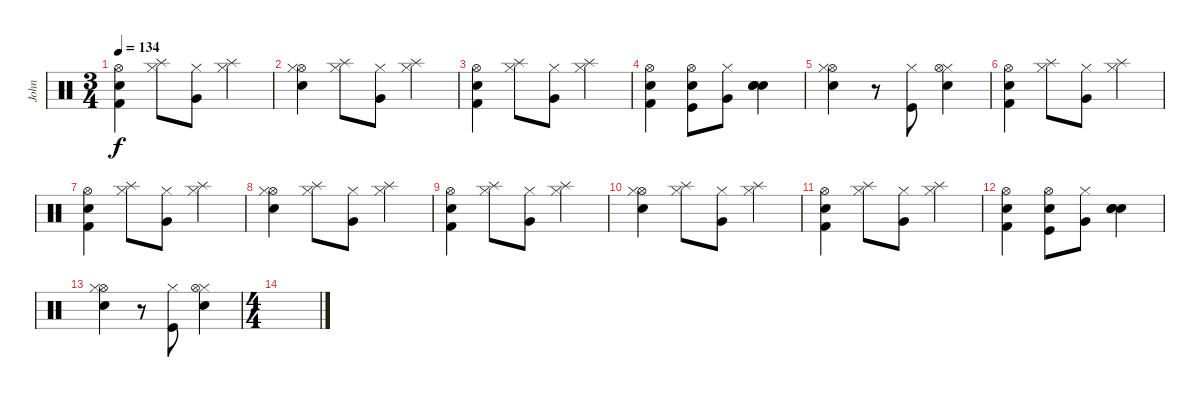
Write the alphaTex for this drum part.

\track ("John" "John") {instrument percussion}
\staff {score}
\articulation defaults
\ts (3 4)
\tempo 134
\clef neutral
\ks c
("Hi-Hat (open)" "Electric Snare (hit)" "Kick (hit) 2").4{dy f} ("Hi-Hat (closed)" "Splash (hit)").8 ("Hi-Hat (closed)" "Very Low Tom (hit)").8 ("Hi-Hat (closed)" "Splash (hit)").4 |
("Hi-Hat (open)" "Hi-Hat (closed)" "Electric Snare (hit)").4 ("Hi-Hat (closed)" "Splash (hit)").8 ("Hi-Hat (closed)" "Very Low Tom (hit)").8 ("Hi-Hat (closed)" "Splash (hit)").4 |
("Hi-Hat (open)" "Electric Snare (hit)" "Kick (hit) 2").4 ("Hi-Hat (closed)" "Splash (hit)").8 ("Hi-Hat (closed)" "Very Low Tom (hit)").8 ("Hi-Hat (closed)" "Splash (hit)").4 |
("Hi-Hat (open)" "Electric Snare (hit)" "Kick (hit) 2").4 ("Hi-Hat (open)" "Electric Snare (hit)" "Kick (hit)").8 ("Hi-Hat (closed)" "Very Low Tom (hit)").8 ("Electric Snare (hit)" "Electric Snare (hit)" "Snare (hit) 2").4 |
("Hi-Hat (open)" "Hi-Hat (closed)" "Electric Snare (hit)").4 r.8 ("Hi-Hat (closed)" "Kick (hit)").8 ("Hi-Hat (closed)" "Electric Snare (hit)" "Hi-Hat (open)").4 |
("Hi-Hat (open)" "Electric Snare (hit)" "Kick (hit) 2").4 ("Hi-Hat (closed)" "Splash (hit)").8 ("Hi-Hat (closed)" "Very Low Tom (hit)").8 ("Hi-Hat (closed)" "Splash (hit)").4 |
("Hi-Hat (open)" "Electric Snare (hit)" "Kick (hit) 2").4 ("Hi-Hat (closed)" "Splash (hit)").8 ("Hi-Hat (closed)" "Very Low Tom (hit)").8 ("Hi-Hat (closed)" "Splash (hit)").4 |
("Hi-Hat (open)" "Hi-Hat (closed)" "Electric Snare (hit)").4 ("Hi-Hat (closed)" "Splash (hit)").8 ("Hi-Hat (closed)" "Very Low Tom (hit)").8 ("Hi-Hat (closed)" "Splash (hit)").4 |
("Hi-Hat (open)" "Electric Snare (hit)" "Kick (hit) 2").4 ("Hi-Hat (closed)" "Splash (hit)").8 ("Hi-Hat (closed)" "Very Low Tom (hit)").8 ("Hi-Hat (closed)" "Splash (hit)").4 |
("Hi-Hat (open)" "Hi-Hat (closed)" "Electric Snare (hit)").4 ("Hi-Hat (closed)" "Splash (hit)").8 ("Hi-Hat (closed)" "Very Low Tom (hit)").8 ("Hi-Hat (closed)" "Splash (hit)").4 |
("Hi-Hat (open)" "Electric Snare (hit)" "Kick (hit) 2").4 ("Hi-Hat (closed)" "Splash (hit)").8 ("Hi-Hat (closed)" "Very Low Tom (hit)").8 ("Hi-Hat (closed)" "Splash (hit)").4 |
("Hi-Hat (open)" "Electric Snare (hit)" "Kick (hit) 2").4 ("Hi-Hat (open)" "Electric Snare (hit)" "Kick (hit)").8 ("Hi-Hat (closed)" "Very Low Tom (hit)").8 ("Electric Snare (hit)" "Electric Snare (hit)" "Snare (hit) 2").4 |
("Hi-Hat (open)" "Hi-Hat (closed)" "Electric Snare (hit)").4 r.8 ("Hi-Hat (closed)" "Kick (hit)").8 ("Hi-Hat (closed)" "Electric Snare (hit)" "Hi-Hat (open)").4 |
\ts (4 4)
